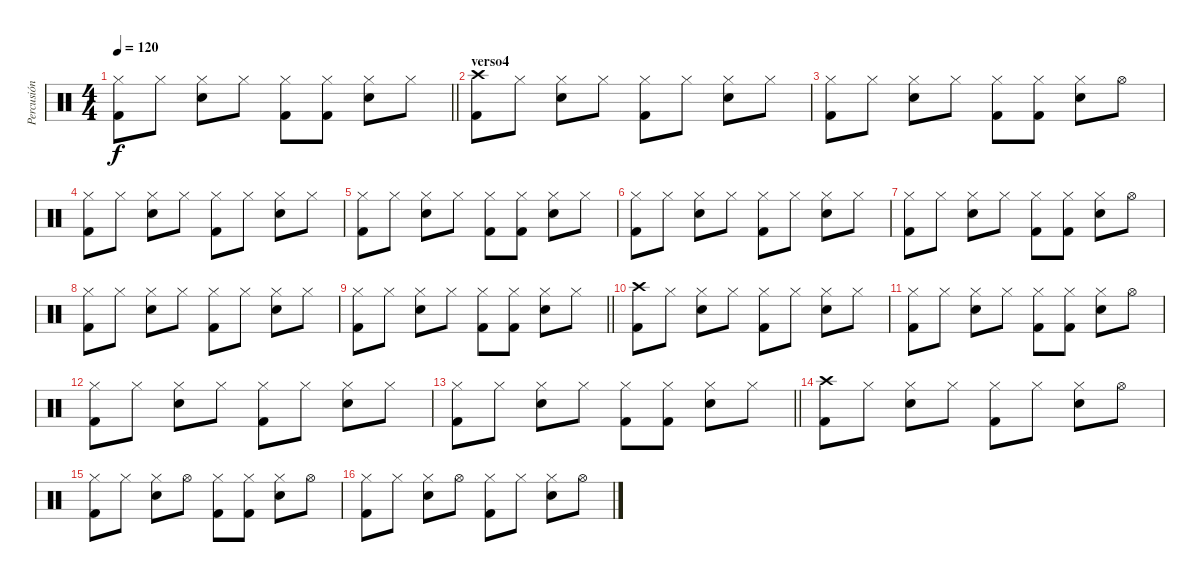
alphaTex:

\track ("Percusión" "Percusión") {instrument percussion}
\staff {score}
\articulation defaults
\ts (4 4)
\tempo 120
\clef neutral
\barLineRight lightlight
\ks c
("Hi-Hat (closed)" "Kick (hit) 2").8{dy f} "Hi-Hat (closed)".8 ("Hi-Hat (closed)" "Electric Snare (hit)").8 "Hi-Hat (closed)".8 ("Hi-Hat (closed)" "Kick (hit) 2").8 ("Hi-Hat (closed)" "Kick (hit) 2").8 ("Hi-Hat (closed)" "Electric Snare (hit)").8 "Hi-Hat (closed)".8 |
\section ("" "verso4")
("Crash high (hit)" "Kick (hit) 2").8 "Hi-Hat (closed)".8 ("Hi-Hat (closed)" "Electric Snare (hit)").8 "Hi-Hat (closed)".8 ("Hi-Hat (closed)" "Kick (hit) 2").8 "Hi-Hat (closed)".8 ("Hi-Hat (closed)" "Electric Snare (hit)").8 "Hi-Hat (closed)".8 |
("Hi-Hat (closed)" "Kick (hit) 2").8 "Hi-Hat (closed)".8 ("Hi-Hat (closed)" "Electric Snare (hit)").8 "Hi-Hat (closed)".8 ("Hi-Hat (closed)" "Kick (hit) 2").8 ("Hi-Hat (closed)" "Kick (hit) 2").8 ("Hi-Hat (closed)" "Electric Snare (hit)").8 "Hi-Hat (open)".8 |
("Hi-Hat (closed)" "Kick (hit) 2").8 "Hi-Hat (closed)".8 ("Hi-Hat (closed)" "Electric Snare (hit)").8 "Hi-Hat (closed)".8 ("Hi-Hat (closed)" "Kick (hit) 2").8 "Hi-Hat (closed)".8 ("Hi-Hat (closed)" "Electric Snare (hit)").8 "Hi-Hat (closed)".8 |
("Hi-Hat (closed)" "Kick (hit) 2").8 "Hi-Hat (closed)".8 ("Hi-Hat (closed)" "Electric Snare (hit)").8 "Hi-Hat (closed)".8 ("Hi-Hat (closed)" "Kick (hit) 2").8 ("Hi-Hat (closed)" "Kick (hit) 2").8 ("Hi-Hat (closed)" "Electric Snare (hit)").8 "Hi-Hat (closed)".8 |
("Hi-Hat (closed)" "Kick (hit) 2").8 "Hi-Hat (closed)".8 ("Hi-Hat (closed)" "Electric Snare (hit)").8 "Hi-Hat (closed)".8 ("Hi-Hat (closed)" "Kick (hit) 2").8 "Hi-Hat (closed)".8 ("Hi-Hat (closed)" "Electric Snare (hit)").8 "Hi-Hat (closed)".8 |
("Hi-Hat (closed)" "Kick (hit) 2").8 "Hi-Hat (closed)".8 ("Hi-Hat (closed)" "Electric Snare (hit)").8 "Hi-Hat (closed)".8 ("Hi-Hat (closed)" "Kick (hit) 2").8 ("Hi-Hat (closed)" "Kick (hit) 2").8 ("Hi-Hat (closed)" "Electric Snare (hit)").8 "Hi-Hat (open)".8 |
("Hi-Hat (closed)" "Kick (hit) 2").8 "Hi-Hat (closed)".8 ("Hi-Hat (closed)" "Electric Snare (hit)").8 "Hi-Hat (closed)".8 ("Hi-Hat (closed)" "Kick (hit) 2").8 "Hi-Hat (closed)".8 ("Hi-Hat (closed)" "Electric Snare (hit)").8 "Hi-Hat (closed)".8 |
\barLineRight lightlight
("Hi-Hat (closed)" "Kick (hit) 2").8 "Hi-Hat (closed)".8 ("Hi-Hat (closed)" "Electric Snare (hit)").8 "Hi-Hat (closed)".8 ("Hi-Hat (closed)" "Kick (hit) 2").8 ("Hi-Hat (closed)" "Kick (hit) 2").8 ("Hi-Hat (closed)" "Electric Snare (hit)").8 "Hi-Hat (closed)".8 |
\section ("" "")
("Crash high (hit)" "Kick (hit) 2").8 "Hi-Hat (closed)".8 ("Hi-Hat (closed)" "Electric Snare (hit)").8 "Hi-Hat (closed)".8 ("Hi-Hat (closed)" "Kick (hit) 2").8 "Hi-Hat (closed)".8 ("Hi-Hat (closed)" "Electric Snare (hit)").8 "Hi-Hat (closed)".8 |
("Hi-Hat (closed)" "Kick (hit) 2").8 "Hi-Hat (closed)".8 ("Hi-Hat (closed)" "Electric Snare (hit)").8 "Hi-Hat (closed)".8 ("Hi-Hat (closed)" "Kick (hit) 2").8 ("Hi-Hat (closed)" "Kick (hit) 2").8 ("Hi-Hat (closed)" "Electric Snare (hit)").8 "Hi-Hat (open)".8 |
("Hi-Hat (closed)" "Kick (hit) 2").8 "Hi-Hat (closed)".8 ("Hi-Hat (closed)" "Electric Snare (hit)").8 "Hi-Hat (closed)".8 ("Hi-Hat (closed)" "Kick (hit) 2").8 "Hi-Hat (closed)".8 ("Hi-Hat (closed)" "Electric Snare (hit)").8 "Hi-Hat (closed)".8 |
\barLineRight lightlight
("Hi-Hat (closed)" "Kick (hit) 2").8 "Hi-Hat (closed)".8 ("Hi-Hat (closed)" "Electric Snare (hit)").8 "Hi-Hat (closed)".8 ("Hi-Hat (closed)" "Kick (hit) 2").8 ("Hi-Hat (closed)" "Kick (hit) 2").8 ("Hi-Hat (closed)" "Electric Snare (hit)").8 "Hi-Hat (closed)".8 |
("Crash high (hit)" "Kick (hit) 2").8 "Hi-Hat (closed)".8 ("Hi-Hat (closed)" "Electric Snare (hit)").8 "Hi-Hat (closed)".8 ("Hi-Hat (closed)" "Kick (hit) 2").8 "Hi-Hat (closed)".8 ("Hi-Hat (closed)" "Electric Snare (hit)").8 "Hi-Hat (open)".8 |
("Hi-Hat (closed)" "Kick (hit) 2").8 "Hi-Hat (closed)".8 ("Hi-Hat (closed)" "Electric Snare (hit)").8 "Hi-Hat (open)".8 ("Hi-Hat (closed)" "Kick (hit) 2").8 ("Hi-Hat (closed)" "Kick (hit) 2").8 ("Hi-Hat (closed)" "Electric Snare (hit)").8 "Hi-Hat (open)".8 |
("Hi-Hat (closed)" "Kick (hit) 2").8 "Hi-Hat (closed)".8 ("Hi-Hat (closed)" "Electric Snare (hit)").8 "Hi-Hat (open)".8 ("Hi-Hat (closed)" "Kick (hit) 2").8 "Hi-Hat (closed)".8 ("Hi-Hat (closed)" "Electric Snare (hit)").8 "Hi-Hat (open)".8
